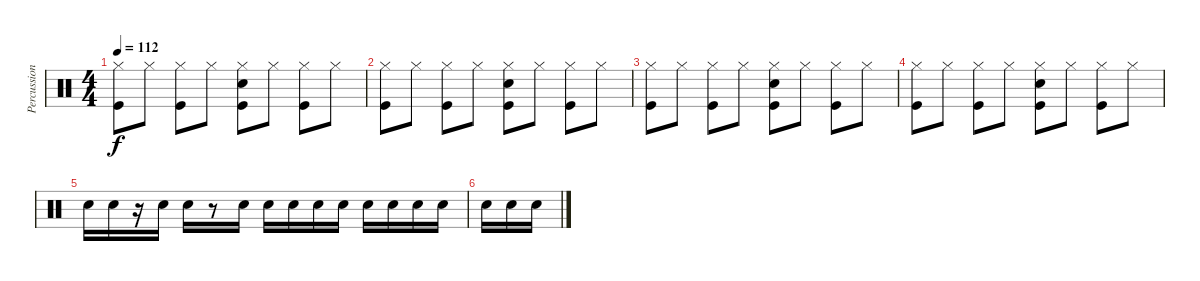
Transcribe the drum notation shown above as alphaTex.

\track ("Percussions" "Percussion") {instrument percussion}
\staff {score}
\articulation defaults
\ts (4 4)
\tempo 112
\clef neutral
\ks c
("Hi-Hat (closed)" "Kick (hit)").8{dy f} "Hi-Hat (closed)".8 ("Hi-Hat (closed)" "Kick (hit)").8 "Hi-Hat (closed)".8 ("Hi-Hat (closed)" "Snare (hit) 2" "Kick (hit)").8 "Hi-Hat (closed)".8 ("Hi-Hat (closed)" "Kick (hit)").8 "Hi-Hat (closed)".8 |
("Hi-Hat (closed)" "Kick (hit)").8 "Hi-Hat (closed)".8 ("Hi-Hat (closed)" "Kick (hit)").8 "Hi-Hat (closed)".8 ("Hi-Hat (closed)" "Snare (hit) 2" "Kick (hit)").8 "Hi-Hat (closed)".8 ("Hi-Hat (closed)" "Kick (hit)").8 "Hi-Hat (closed)".8 |
("Hi-Hat (closed)" "Kick (hit)").8 "Hi-Hat (closed)".8 ("Hi-Hat (closed)" "Kick (hit)").8 "Hi-Hat (closed)".8 ("Hi-Hat (closed)" "Snare (hit) 2" "Kick (hit)").8 "Hi-Hat (closed)".8 ("Hi-Hat (closed)" "Kick (hit)").8 "Hi-Hat (closed)".8 |
("Hi-Hat (closed)" "Kick (hit)").8 "Hi-Hat (closed)".8 ("Hi-Hat (closed)" "Kick (hit)").8 "Hi-Hat (closed)".8 ("Hi-Hat (closed)" "Snare (hit) 2" "Kick (hit)").8 "Hi-Hat (closed)".8 ("Hi-Hat (closed)" "Kick (hit)").8 "Hi-Hat (closed)".8 |
"Snare (hit) 2".16 "Snare (hit) 2".16 r.16 "Snare (hit) 2".16 "Snare (hit) 2".16 r.8 "Snare (hit) 2".16 "Snare (hit) 2".16 "Snare (hit) 2".16 "Snare (hit) 2".16 "Snare (hit) 2".16 "Snare (hit) 2".16 "Snare (hit) 2".16 "Snare (hit) 2".16 "Snare (hit) 2".16 |
"Snare (hit) 2".16 "Snare (hit) 2".16 "Snare (hit) 2".16
